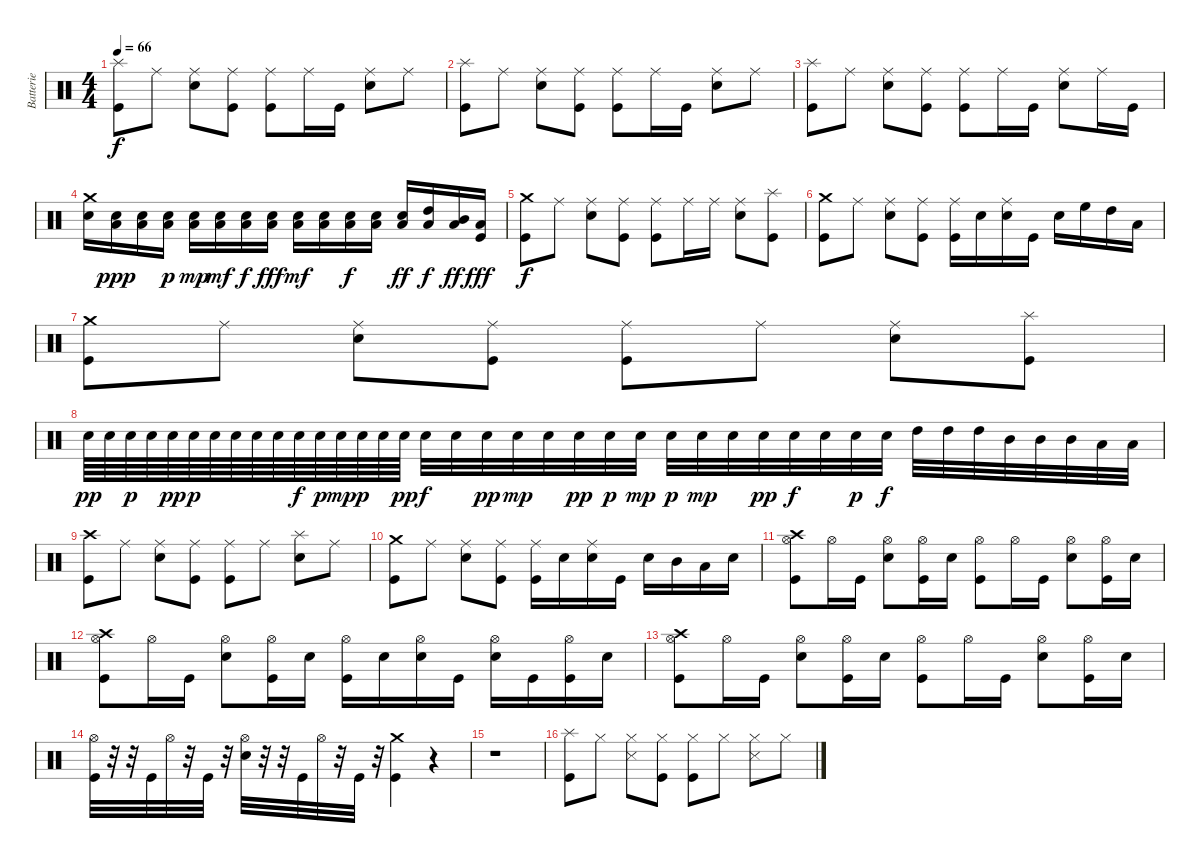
\track ("Batterie" "Batterie") {instrument percussion}
\staff {score}
\articulation defaults
\ts (4 4)
\tempo 66
\clef neutral
\ks c
("Splash (hit)" "Kick (hit)").8{dy f} "Ride (middle)".8 ("Ride (middle)" "Snare (hit) 2").8 ("Ride (middle)" "Kick (hit)").8 ("Ride (middle)" "Kick (hit)").8 "Ride (middle)".16 "Kick (hit)".16 ("Ride (middle)" "Snare (hit) 2").8 "Ride (middle)".8 |
("Splash (hit)" "Kick (hit)").8 "Ride (middle)".8 ("Ride (middle)" "Snare (hit) 2").8 ("Ride (middle)" "Kick (hit)").8 ("Ride (middle)" "Kick (hit)").8 "Ride (middle)".16 "Kick (hit)".16 ("Ride (middle)" "Snare (hit) 2").8 "Ride (middle)".8 |
("Splash (hit)" "Kick (hit)").8 "Ride (middle)".8 ("Ride (middle)" "Snare (hit) 2").8 ("Ride (middle)" "Kick (hit)").8 ("Ride (middle)" "Kick (hit)").8 "Ride (middle)".16 "Kick (hit)".16 ("Ride (middle)" "Snare (hit) 2").8 "Ride (middle)".16 "Kick (hit)".16 |
("Crash medium (hit)" "Snare (hit) 2").16 ("Snare (hit) 2" "Low Tom (hit)").16{dy ppp} ("Snare (hit) 2" "Low Tom (hit)").16 ("Snare (hit) 2" "Low Tom (hit)").16{dy p} ("Snare (hit) 2" "Low Tom (hit)").16{dy mp} ("Snare (hit) 2" "Low Tom (hit)").16{dy mf} ("Snare (hit) 2" "Low Tom (hit)").16{dy f} ("Snare (hit) 2" "Low Tom (hit)").16{dy fff} ("Snare (hit) 2" "Low Tom (hit)").16{dy mf} ("Snare (hit) 2" "Low Tom (hit)").16 ("Snare (hit) 2" "Low Tom (hit)").16{dy f} ("Snare (hit) 2" "Low Tom (hit)").16 ("Snare (hit) 2" "Low Tom (hit)").16{dy ff} ("High Tom (hit)" "Low Tom (hit)").16{dy f} ("Mid Tom (hit)" "Low Tom (hit)").16{dy ff} ("Low Tom (hit)" "Kick (hit)").16{dy fff} |
("Crash medium (hit)" "Kick (hit)").8{dy f} "Ride (middle)".8 ("Ride (middle)" "Snare (hit) 2").8 ("Ride (middle)" "Kick (hit)").8 ("Ride (middle)" "Kick (hit)").8 "Ride (middle)".16 "Ride (middle)".16 ("Ride (middle)" "Snare (hit) 2").8 ("Splash (hit)" "Kick (hit)").8 |
("Crash medium (hit)" "Kick (hit)").8 "Ride (middle)".8 ("Ride (middle)" "Snare (hit) 2").8 ("Ride (middle)" "Kick (hit)").8 ("Ride (middle)" "Kick (hit)").16 "Snare (hit) 2".16 ("Ride (middle)" "Snare (hit) 2").16 "Kick (hit)".16 "Snare (hit) 2".16 "High Floor Tom (hit)".16 "High Tom (hit)".16 "Low Tom (hit)".16 |
("Crash medium (hit)" "Kick (hit)").8 "Ride (middle)".8 ("Ride (middle)" "Snare (hit) 2").8 ("Ride (middle)" "Kick (hit)").8 ("Ride (middle)" "Kick (hit)").8 "Ride (middle)".8 ("Ride (middle)" "Snare (hit) 2").8 ("Splash (hit)" "Kick (hit)").8 |
"Snare (hit) 2".64{dy pp} "Snare (hit) 2".64 "Snare (hit) 2".64{dy p} "Snare (hit) 2".64 "Snare (hit) 2".64{dy pp} "Snare (hit) 2".64{dy p} "Snare (hit) 2".64 "Snare (hit) 2".64 "Snare (hit) 2".64 "Snare (hit) 2".64 "Snare (hit) 2".64{dy f} "Snare (hit) 2".64{dy p} "Snare (hit) 2".64{dy mp} "Snare (hit) 2".64{dy p} "Snare (hit) 2".64 "Snare (hit) 2".64{dy pp} "Snare (hit) 2".32{dy f} "Snare (hit) 2".32 "Snare (hit) 2".32{dy pp} "Snare (hit) 2".32{dy mp} "Snare (hit) 2".32 "Snare (hit) 2".32{dy pp} "Snare (hit) 2".32{dy p} "Snare (hit) 2".32{dy mp} "Snare (hit) 2".32{dy p} "Snare (hit) 2".32{dy mp} "Snare (hit) 2".32 "Snare (hit) 2".32{dy pp} "Snare (hit) 2".32{dy f} "Snare (hit) 2".32 "Snare (hit) 2".32{dy p} "Snare (hit) 2".32{dy f} "High Tom (hit)".32 "High Tom (hit)".32 "High Tom (hit)".32 "Mid Tom (hit)".32 "Mid Tom (hit)".32 "Mid Tom (hit)".32 "Low Tom (hit)".32 "Low Tom (hit)".32 |
("Crash high (hit)" "Kick (hit)").8 "Ride (middle)".8 ("Ride (middle)" "Snare (hit) 2").8 ("Ride (middle)" "Kick (hit)").8 ("Ride (middle)" "Kick (hit)").8 "Ride (middle)".8 ("Splash (hit)" "Snare (hit) 2").8 "Ride (middle)".8 |
("Crash medium (hit)" "Kick (hit)").8 "Ride (middle)".8 ("Ride (middle)" "Snare (hit) 2").8 ("Ride (middle)" "Kick (hit)").8 ("Ride (middle)" "Kick (hit)").16 "Snare (hit) 2".16 ("Ride (middle)" "Snare (hit) 2").16 "Kick (hit)".16 "Snare (hit) 2".16 "Mid Tom (hit)".16 "Low Tom (hit)".16 "Snare (hit) 2".16 |
("Hi-Hat (open)" "Crash high (hit)" "Kick (hit)").8 "Hi-Hat (open)".16 "Kick (hit)".16 ("Hi-Hat (open)" "Snare (hit) 2").8 ("Hi-Hat (open)" "Kick (hit)").16 "Snare (hit) 2".16 ("Hi-Hat (open)" "Kick (hit)").8 "Hi-Hat (open)".16 "Kick (hit)".16 ("Hi-Hat (open)" "Snare (hit) 2").8 ("Hi-Hat (open)" "Kick (hit)").16 "Snare (hit) 2".16 |
("Hi-Hat (open)" "Crash high (hit)" "Kick (hit)").8 "Hi-Hat (open)".16 "Kick (hit)".16 ("Hi-Hat (open)" "Snare (hit) 2").8 ("Hi-Hat (open)" "Kick (hit)").16 "Snare (hit) 2".16 ("Hi-Hat (open)" "Kick (hit)").16 "Snare (hit) 2".16 ("Hi-Hat (open)" "Snare (hit) 2").16 "Kick (hit)".16 ("Hi-Hat (open)" "Snare (hit) 2").16 "Kick (hit)".16 ("Hi-Hat (open)" "Kick (hit)").16 "Snare (hit) 2".16 |
("Hi-Hat (open)" "Crash high (hit)" "Kick (hit)").8 "Hi-Hat (open)".16 "Kick (hit)".16 ("Hi-Hat (open)" "Snare (hit) 2").8 ("Hi-Hat (open)" "Kick (hit)").16 "Snare (hit) 2".16 ("Hi-Hat (open)" "Kick (hit)").8 "Hi-Hat (open)".16 "Kick (hit)".16 ("Hi-Hat (open)" "Snare (hit) 2").8 ("Hi-Hat (open)" "Kick (hit)").16 "Snare (hit) 2".16 |
("Hi-Hat (open)" "Kick (hit)").32 r.32 r.32 "Kick (hit)".32 "Hi-Hat (open)".32 r.32 "Kick (hit)".32 r.32 ("Hi-Hat (open)" "Snare (hit) 2").32 r.32 r.32 "Kick (hit)".32 "Hi-Hat (open)".32 r.32 "Kick (hit)".32 r.32 ("Crash medium (hit)" "Kick (hit)").4 r.4 |
r.1 |
("Splash (hit)" "Kick (hit)").8 "Hi-Hat (closed)".8 ("Hi-Hat (closed)" "Snare (side stick) 3").8 ("Hi-Hat (closed)" "Kick (hit)").8 ("Hi-Hat (closed)" "Kick (hit)").8 "Hi-Hat (closed)".8 ("Hi-Hat (closed)" "Snare (side stick) 3").8 "Hi-Hat (closed)".8
